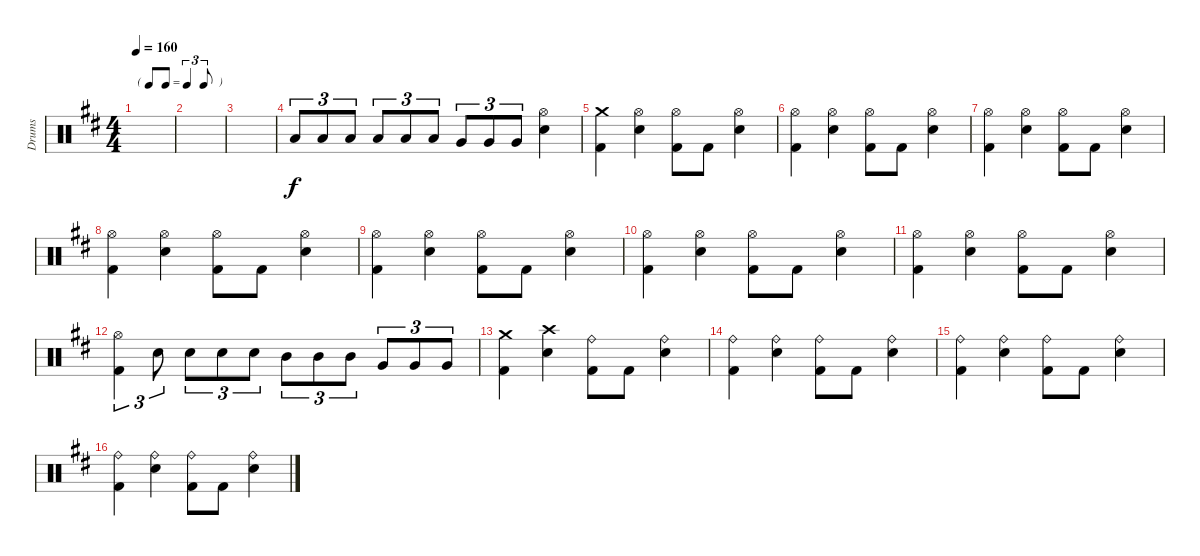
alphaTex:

\track ("Drums" "Drums") {instrument percussion}
\staff {score}
\articulation defaults
\ts (4 4)
\tf triplet8th
\tempo 160
\clef neutral
\ks d
|
|
|
"Low Tom (hit)".8{tu (3 2)} "Low Tom (hit)".8{tu (3 2)} "Low Tom (hit)".8{tu (3 2)} "Low Tom (hit)".8{tu (3 2)} "Low Tom (hit)".8{tu (3 2)} "Low Tom (hit)".8{tu (3 2)} "Very Low Tom (hit)".8{tu (3 2)} "Very Low Tom (hit)".8{tu (3 2)} "Very Low Tom (hit)".8{tu (3 2)} ("Hi-Hat (open)" "Electric Snare (hit)").4 |
("Crash medium (hit)" "Kick (hit) 2").4 ("Hi-Hat (open)" "Electric Snare (hit)").4 ("Hi-Hat (open)" "Kick (hit) 2").8 "Kick (hit) 2".8 ("Hi-Hat (open)" "Electric Snare (hit)").4 |
("Hi-Hat (open)" "Kick (hit) 2").4 ("Hi-Hat (open)" "Electric Snare (hit)").4 ("Hi-Hat (open)" "Kick (hit) 2").8 "Kick (hit) 2".8 ("Hi-Hat (open)" "Electric Snare (hit)").4 |
("Hi-Hat (open)" "Kick (hit) 2").4 ("Hi-Hat (open)" "Electric Snare (hit)").4 ("Hi-Hat (open)" "Kick (hit) 2").8 "Kick (hit) 2".8 ("Hi-Hat (open)" "Electric Snare (hit)").4 |
("Hi-Hat (open)" "Kick (hit) 2").4 ("Hi-Hat (open)" "Electric Snare (hit)").4 ("Hi-Hat (open)" "Kick (hit) 2").8 "Kick (hit) 2".8 ("Hi-Hat (open)" "Electric Snare (hit)").4 |
("Hi-Hat (open)" "Kick (hit) 2").4 ("Hi-Hat (open)" "Electric Snare (hit)").4 ("Hi-Hat (open)" "Kick (hit) 2").8 "Kick (hit) 2".8 ("Hi-Hat (open)" "Electric Snare (hit)").4 |
("Hi-Hat (open)" "Kick (hit) 2").4 ("Hi-Hat (open)" "Electric Snare (hit)").4 ("Hi-Hat (open)" "Kick (hit) 2").8 "Kick (hit) 2".8 ("Hi-Hat (open)" "Electric Snare (hit)").4 |
("Hi-Hat (open)" "Kick (hit) 2").4 ("Hi-Hat (open)" "Electric Snare (hit)").4 ("Hi-Hat (open)" "Kick (hit) 2").8 "Kick (hit) 2".8 ("Hi-Hat (open)" "Electric Snare (hit)").4 |
("Hi-Hat (open)" "Kick (hit) 2").4{tu (3 2)} "Electric Snare (hit)".8{tu (3 2)} "Electric Snare (hit)".8{tu (3 2)} "Electric Snare (hit)".8{tu (3 2)} "Electric Snare (hit)".8{tu (3 2)} "Mid Tom (hit)".8{tu (3 2)} "Mid Tom (hit)".8{tu (3 2)} "Mid Tom (hit)".8{tu (3 2)} "Very Low Tom (hit)".8{tu (3 2)} "Very Low Tom (hit)".8{tu (3 2)} "Very Low Tom (hit)".8{tu (3 2)} |
("Crash medium (hit)" "Kick (hit) 2").4 ("Crash high (hit)" "Electric Snare (hit)").4 ("Ride (bell)" "Kick (hit) 2").8 "Kick (hit) 2".8 ("Ride (bell)" "Electric Snare (hit)").4 |
("Ride (bell)" "Kick (hit) 2").4 ("Ride (bell)" "Electric Snare (hit)").4 ("Ride (bell)" "Kick (hit) 2").8 "Kick (hit) 2".8 ("Ride (bell)" "Electric Snare (hit)").4 |
("Ride (bell)" "Kick (hit) 2").4 ("Ride (bell)" "Electric Snare (hit)").4 ("Ride (bell)" "Kick (hit) 2").8 "Kick (hit) 2".8 ("Ride (bell)" "Electric Snare (hit)").4 |
("Ride (bell)" "Kick (hit) 2").4 ("Ride (bell)" "Electric Snare (hit)").4 ("Ride (bell)" "Kick (hit) 2").8 "Kick (hit) 2".8 ("Ride (bell)" "Electric Snare (hit)").4
